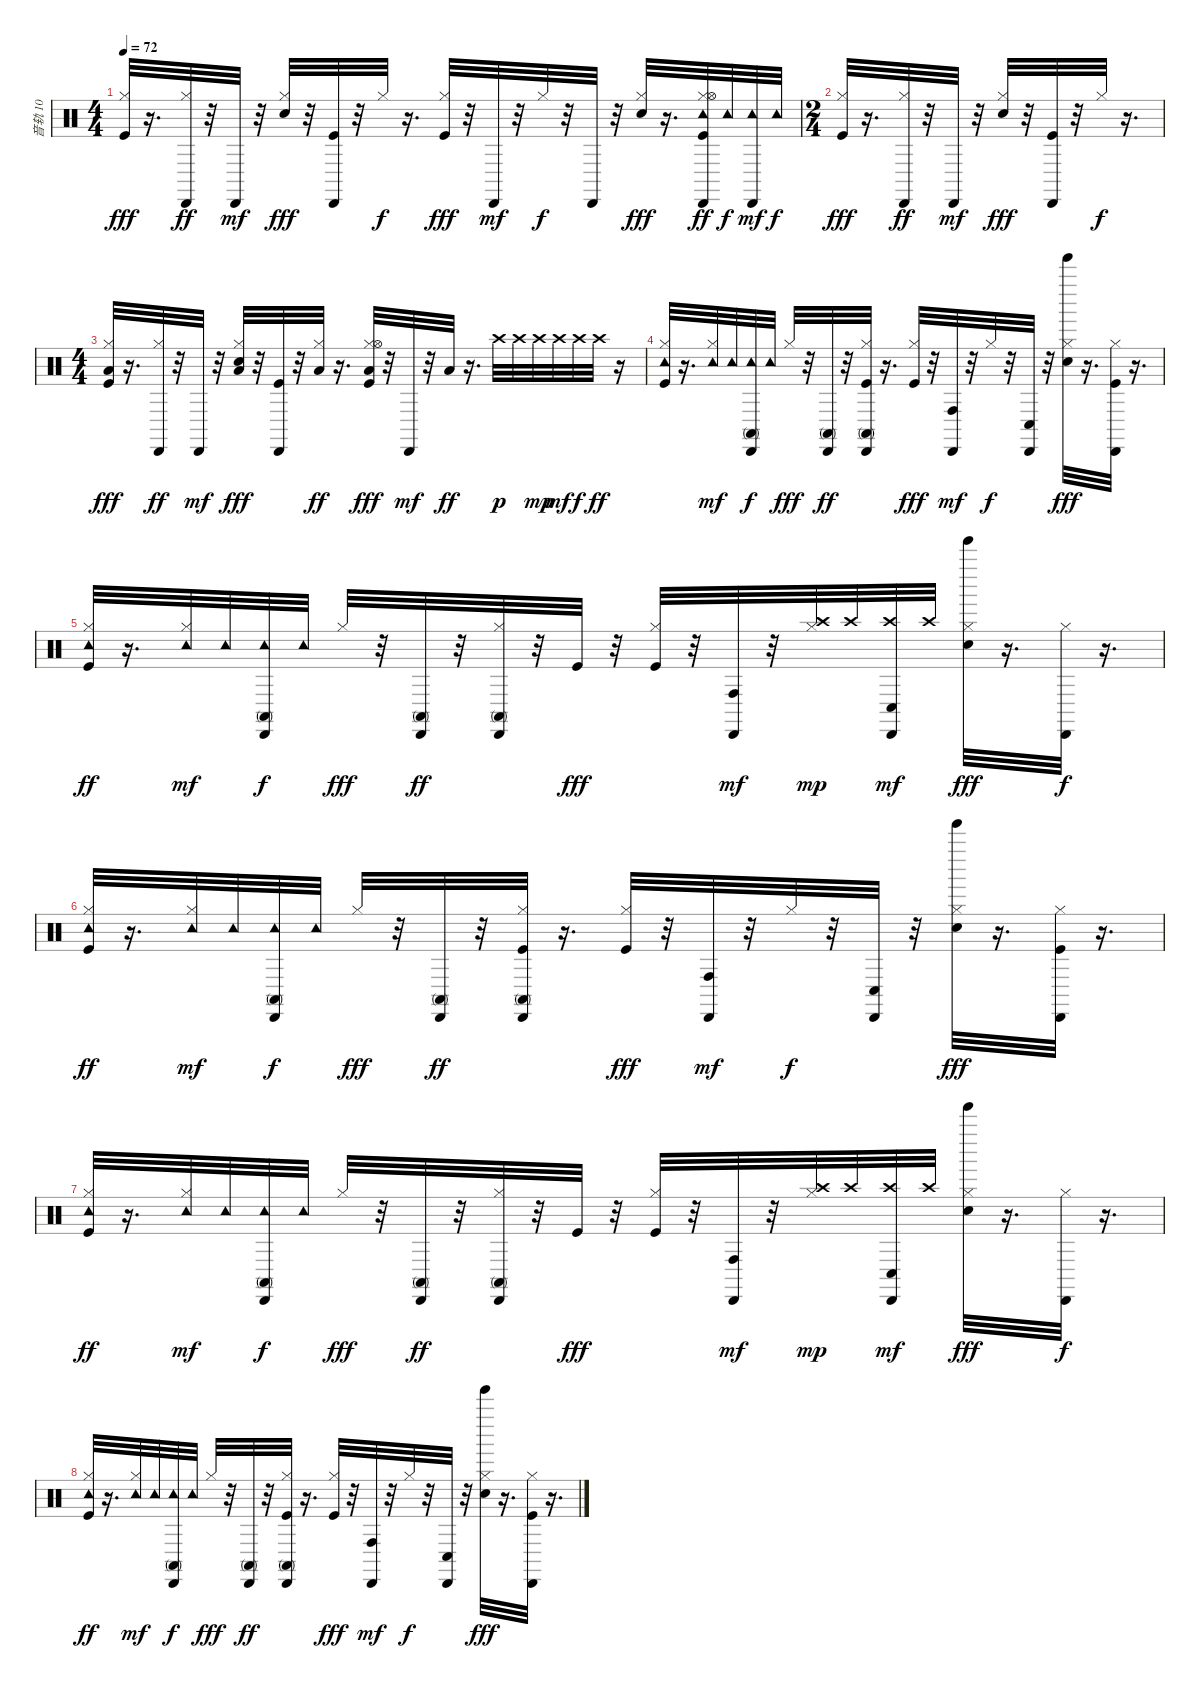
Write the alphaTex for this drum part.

\track ("音轨 10" "音轨 10") {instrument percussion}
\staff {score}
\articulation defaults
\ts (4 4)
\tempo 72
\clef neutral
\ks c
("Kick (hit)" "Hi-Hat (closed)").32{dy fff} r.16{d} ("Hi-Hat (closed)" "Cabasa (hit)").32{dy ff} r.32 "Cabasa (hit)".32{dy mf} r.32 ("Electric Snare (hit)" "Hi-Hat (closed)").32{dy fff} r.32 ("Kick (hit)" "Cabasa (hit)").32 r.32 "Hi-Hat (closed)".32{dy f} r.16{d} ("Kick (hit)" "Hi-Hat (closed)").32{dy fff} r.32 "Cabasa (hit)".32{dy mf} r.32 "Hi-Hat (closed)".32{dy f} r.32 "Cabasa (hit)".32 r.32 ("Electric Snare (hit)" "Hi-Hat (closed)").32{dy fff} r.16{d} ("Kick (hit)" "Hi-Hat (closed)" "Hi-Hat (open)" "Tambourine (hit)" "Cabasa (hit)").32{dy ff} "Tambourine (hit)".32{dy f} ("Tambourine (hit)" "Cabasa (hit)").32{dy mf} "Tambourine (hit)".32{dy f} |
\ts (2 4)
("Kick (hit)" "Hi-Hat (closed)").32{dy fff} r.16{d} ("Hi-Hat (closed)" "Cabasa (hit)").32{dy ff} r.32 "Cabasa (hit)".32{dy mf} r.32 ("Electric Snare (hit)" "Hi-Hat (closed)").32{dy fff} r.32 ("Kick (hit)" "Cabasa (hit)").32 r.32 "Hi-Hat (closed)".32{dy f} r.16{d} |
\ts (4 4)
("Kick (hit)" "Hi-Hat (closed)" "Low Floor Tom (hit)").32{dy fff} r.16{d} ("Hi-Hat (closed)" "Cabasa (hit)").32{dy ff} r.32 "Cabasa (hit)".32{dy mf} r.32 ("Electric Snare (hit)" "Hi-Hat (closed)" "Low Tom (hit)").32{dy fff} r.32 ("Kick (hit)" "Cabasa (hit)").32 r.32 ("Hi-Hat (closed)" "Low Tom (hit)").32{dy ff} r.16{d} ("Kick (hit)" "Hi-Hat (closed)" "Hi-Hat (open)" "Low Floor Tom (hit)").32{dy fff} r.32 "Cabasa (hit)".32{dy mf} r.32 "Low Floor Tom (hit)".32{dy ff} r.16{d} "Crash high (hit)".32{dy p} "Crash high (hit)".32 "Crash high (hit)".32{dy mp} "Crash high (hit)".32{dy mf} "Crash high (hit)".32{dy f} "Crash high (hit)".32{dy ff} r.16 |
("Kick (hit)" "Hi-Hat (closed)" "Tambourine (hit)").32 r.16{d} ("Hi-Hat (closed)" "Tambourine (hit)").32{dy mf} "Tambourine (hit)".32 ("Tambourine (hit)" "Conga high (mute)" "Cabasa (hit)").32{dy f} "Tambourine (hit)".32 "Hi-Hat (closed)".32{dy fff} r.32 ("Conga high (mute)" "Cabasa (hit)").32{dy ff} r.32 ("Kick (hit)" "Hi-Hat (closed)" "Conga high (mute)" "Cabasa (hit)").32 r.16{d} ("Kick (hit)" "Hi-Hat (closed)").32{dy fff} r.32 ("Conga high (hit)" "Cabasa (hit)").32{dy mf} r.32 "Hi-Hat (closed)".32{dy f} r.32 ("Conga low (hit)" "Cabasa (hit)").32 r.32 ("Electric Snare (hit)" "Hi-Hat (closed)" "Tinkle Bell (hit)").32{dy fff} r.16{d} ("Kick (hit)" "Hi-Hat (closed)" "Cabasa (hit)").32 r.16{d} |
("Kick (hit)" "Hi-Hat (closed)" "Tambourine (hit)").32{dy ff} r.16{d} ("Hi-Hat (closed)" "Tambourine (hit)").32{dy mf} "Tambourine (hit)".32 ("Tambourine (hit)" "Conga high (mute)" "Cabasa (hit)").32{dy f} "Tambourine (hit)".32 "Hi-Hat (closed)".32{dy fff} r.32 ("Conga high (mute)" "Cabasa (hit)").32{dy ff} r.32 ("Hi-Hat (closed)" "Conga high (mute)" "Cabasa (hit)").32 r.32 "Kick (hit)".32{dy fff} r.32 ("Kick (hit)" "Hi-Hat (closed)").32 r.32 ("Conga high (hit)" "Cabasa (hit)").32{dy mf} r.32 ("Hi-Hat (closed)" "Crash high (hit)").32{dy mp} "Crash high (hit)".32 ("Crash high (hit)" "Conga low (hit)" "Cabasa (hit)").32{dy mf} "Crash high (hit)".32 ("Electric Snare (hit)" "Hi-Hat (closed)" "Tinkle Bell (hit)").32{dy fff} r.16{d} ("Hi-Hat (closed)" "Cabasa (hit)").32{dy f} r.16{d} |
("Kick (hit)" "Hi-Hat (closed)" "Tambourine (hit)").32{dy ff} r.16{d} ("Hi-Hat (closed)" "Tambourine (hit)").32{dy mf} "Tambourine (hit)".32 ("Tambourine (hit)" "Conga high (mute)" "Cabasa (hit)").32{dy f} "Tambourine (hit)".32 "Hi-Hat (closed)".32{dy fff} r.32 ("Conga high (mute)" "Cabasa (hit)").32{dy ff} r.32 ("Kick (hit)" "Hi-Hat (closed)" "Conga high (mute)" "Cabasa (hit)").32 r.16{d} ("Kick (hit)" "Hi-Hat (closed)").32{dy fff} r.32 ("Conga high (hit)" "Cabasa (hit)").32{dy mf} r.32 "Hi-Hat (closed)".32{dy f} r.32 ("Conga low (hit)" "Cabasa (hit)").32 r.32 ("Electric Snare (hit)" "Hi-Hat (closed)" "Tinkle Bell (hit)").32{dy fff} r.16{d} ("Kick (hit)" "Hi-Hat (closed)" "Cabasa (hit)").32 r.16{d} |
("Kick (hit)" "Hi-Hat (closed)" "Tambourine (hit)").32{dy ff} r.16{d} ("Hi-Hat (closed)" "Tambourine (hit)").32{dy mf} "Tambourine (hit)".32 ("Tambourine (hit)" "Conga high (mute)" "Cabasa (hit)").32{dy f} "Tambourine (hit)".32 "Hi-Hat (closed)".32{dy fff} r.32 ("Conga high (mute)" "Cabasa (hit)").32{dy ff} r.32 ("Hi-Hat (closed)" "Conga high (mute)" "Cabasa (hit)").32 r.32 "Kick (hit)".32{dy fff} r.32 ("Kick (hit)" "Hi-Hat (closed)").32 r.32 ("Conga high (hit)" "Cabasa (hit)").32{dy mf} r.32 ("Hi-Hat (closed)" "Crash high (hit)").32{dy mp} "Crash high (hit)".32 ("Crash high (hit)" "Conga low (hit)" "Cabasa (hit)").32{dy mf} "Crash high (hit)".32 ("Electric Snare (hit)" "Hi-Hat (closed)" "Tinkle Bell (hit)").32{dy fff} r.16{d} ("Hi-Hat (closed)" "Cabasa (hit)").32{dy f} r.16{d} |
("Kick (hit)" "Hi-Hat (closed)" "Tambourine (hit)").32{dy ff} r.16{d} ("Hi-Hat (closed)" "Tambourine (hit)").32{dy mf} "Tambourine (hit)".32 ("Tambourine (hit)" "Conga high (mute)" "Cabasa (hit)").32{dy f} "Tambourine (hit)".32 "Hi-Hat (closed)".32{dy fff} r.32 ("Conga high (mute)" "Cabasa (hit)").32{dy ff} r.32 ("Kick (hit)" "Hi-Hat (closed)" "Conga high (mute)" "Cabasa (hit)").32 r.16{d} ("Kick (hit)" "Hi-Hat (closed)").32{dy fff} r.32 ("Conga high (hit)" "Cabasa (hit)").32{dy mf} r.32 "Hi-Hat (closed)".32{dy f} r.32 ("Conga low (hit)" "Cabasa (hit)").32 r.32 ("Electric Snare (hit)" "Hi-Hat (closed)" "Tinkle Bell (hit)").32{dy fff} r.16{d} ("Kick (hit)" "Hi-Hat (closed)" "Cabasa (hit)").32 r.16{d}
